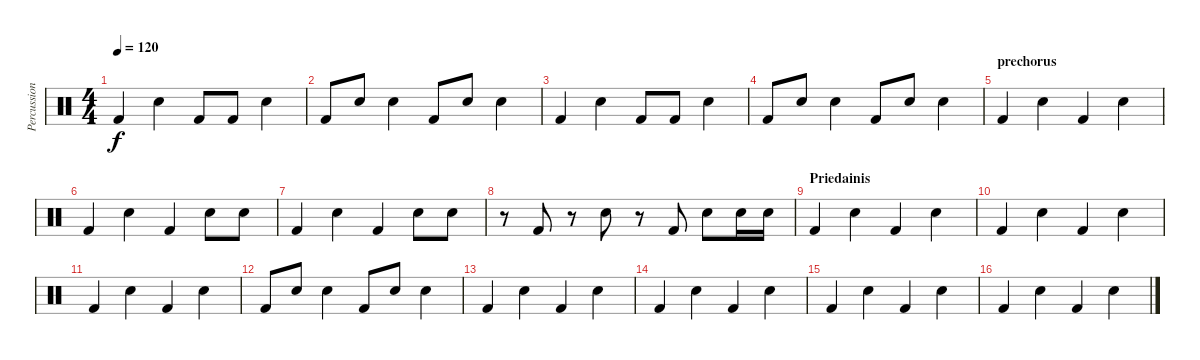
\track ("Percussion" "Percussion") {instrument percussion}
\staff {score}
\articulation defaults
\ts (4 4)
\tempo 120
\clef neutral
\ks c "Kick (hit) 2".4{dy f} "Snare (hit) 2".4 "Kick (hit) 2".8 "Kick (hit) 2".8 "Snare (hit) 2".4
|
"Kick (hit) 2".8 "Snare (hit) 2".8 "Snare (hit) 2".4 "Kick (hit) 2".8 "Snare (hit) 2".8 "Snare (hit) 2".4 |
"Kick (hit) 2".4 "Snare (hit) 2".4 "Kick (hit) 2".8 "Kick (hit) 2".8 "Snare (hit) 2".4 |
"Kick (hit) 2".8 "Snare (hit) 2".8 "Snare (hit) 2".4 "Kick (hit) 2".8 "Snare (hit) 2".8 "Snare (hit) 2".4 |
\section ("" "prechorus")
"Kick (hit) 2".4 "Snare (hit) 2".4 "Kick (hit) 2".4 "Snare (hit) 2".4 |
"Kick (hit) 2".4 "Snare (hit) 2".4 "Kick (hit) 2".4 "Snare (hit) 2".8 "Snare (hit) 2".8 |
"Kick (hit) 2".4 "Snare (hit) 2".4 "Kick (hit) 2".4 "Snare (hit) 2".8 "Snare (hit) 2".8 |
r.8 "Kick (hit) 2".8 r.8 "Snare (hit) 2".8 r.8 "Kick (hit) 2".8 "Snare (hit) 2".8 "Snare (hit) 2".16 "Snare (hit) 2".16 |
\section ("" "Priedainis")
"Kick (hit) 2".4 "Snare (hit) 2".4 "Kick (hit) 2".4 "Snare (hit) 2".4 |
"Kick (hit) 2".4 "Snare (hit) 2".4 "Kick (hit) 2".4 "Snare (hit) 2".4 |
"Kick (hit) 2".4 "Snare (hit) 2".4 "Kick (hit) 2".4 "Snare (hit) 2".4 |
"Kick (hit) 2".8 "Snare (hit) 2".8 "Snare (hit) 2".4 "Kick (hit) 2".8 "Snare (hit) 2".8 "Snare (hit) 2".4 |
"Kick (hit) 2".4 "Snare (hit) 2".4 "Kick (hit) 2".4 "Snare (hit) 2".4 |
"Kick (hit) 2".4 "Snare (hit) 2".4 "Kick (hit) 2".4 "Snare (hit) 2".4 |
"Kick (hit) 2".4 "Snare (hit) 2".4 "Kick (hit) 2".4 "Snare (hit) 2".4 |
"Kick (hit) 2".4 "Snare (hit) 2".4 "Kick (hit) 2".4 "Snare (hit) 2".4
